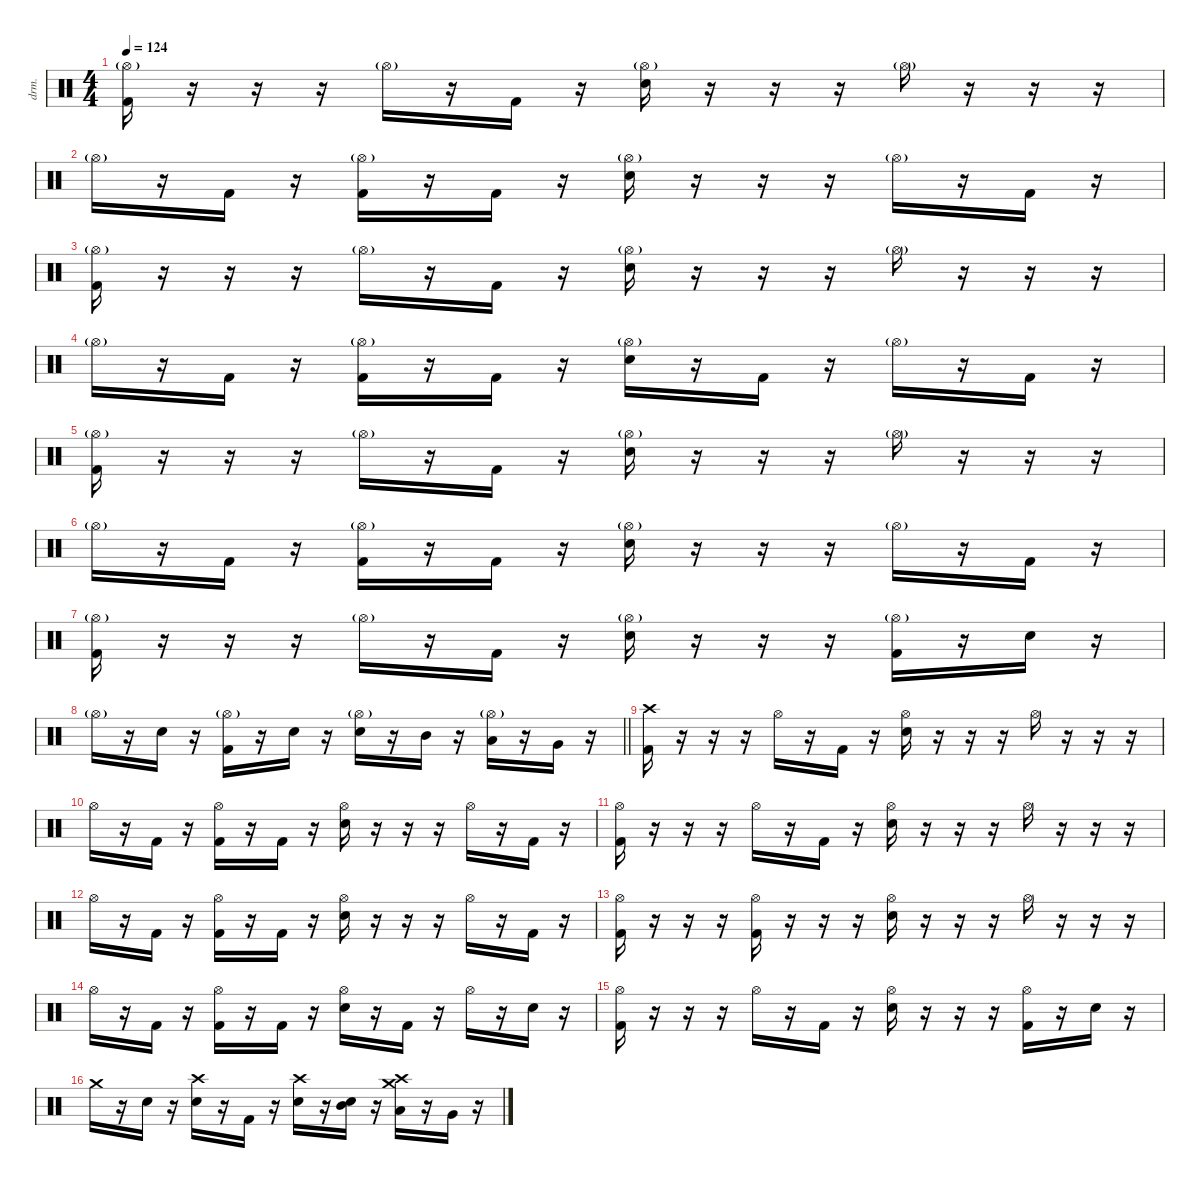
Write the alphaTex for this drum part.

\defaultSystemsLayout 4
\hideDynamics
\bracketExtendMode nobrackets
\otherSystemsTrackNameOrientation horizontal
\track ("Percussion" "drm.") {instrument percussion}
\staff {score}
\articulation defaults
\ts (4 4)
\tempo 124
\clef neutral
\ks c
("Kick (hit) 2" "Hi-Hat (open)"{g}).16{dy f beam Down} r.16{beam Down} r.16{beam Down} r.16{beam Down} "Hi-Hat (open)"{g}.16{dy mf beam Down} r.16{beam Down} "Kick (hit) 2".16{dy f beam Down} r.16{beam Down} ("Snare (hit) 2" "Hi-Hat (open)"{g}).16{beam Down} r.16{beam Down} r.16{beam Down} r.16{beam Down} "Hi-Hat (open)"{g}.16{dy mf beam Down} r.16{beam Down} r.16{beam Down} r.16{beam Down} |
"Hi-Hat (open)"{g}.16{beam Down} r.16{beam Down} "Kick (hit) 2".16{dy f beam Down} r.16{beam Down} ("Kick (hit) 2" "Hi-Hat (open)"{g}).16{beam Down} r.16{beam Down} "Kick (hit) 2".16{beam Down} r.16{beam Down} ("Snare (hit) 2" "Hi-Hat (open)"{g}).16{beam Down} r.16{beam Down} r.16{beam Down} r.16{beam Down} "Hi-Hat (open)"{g}.16{dy mf beam Down} r.16{beam Down} "Kick (hit) 2".16{dy f beam Down} r.16{beam Down} |
("Kick (hit) 2" "Hi-Hat (open)"{g}).16{beam Down} r.16{beam Down} r.16{beam Down} r.16{beam Down} "Hi-Hat (open)"{g}.16{dy mf beam Down} r.16{beam Down} "Kick (hit) 2".16{dy f beam Down} r.16{beam Down} ("Snare (hit) 2" "Hi-Hat (open)"{g}).16{beam Down} r.16{beam Down} r.16{beam Down} r.16{beam Down} "Hi-Hat (open)"{g}.16{dy mf beam Down} r.16{beam Down} r.16{beam Down} r.16{beam Down} |
"Hi-Hat (open)"{g}.16{beam Down} r.16{beam Down} "Kick (hit) 2".16{dy f beam Down} r.16{beam Down} ("Kick (hit) 2" "Hi-Hat (open)"{g}).16{beam Down} r.16{beam Down} "Kick (hit) 2".16{beam Down} r.16{beam Down} ("Snare (hit) 2" "Hi-Hat (open)"{g}).16{beam Down} r.16{beam Down} "Kick (hit) 2".16{beam Down} r.16{beam Down} "Hi-Hat (open)"{g}.16{dy mf beam Down} r.16{beam Down} "Kick (hit) 2".16{dy f beam Down} r.16{beam Down} |
("Kick (hit) 2" "Hi-Hat (open)"{g}).16{beam Down} r.16{beam Down} r.16{beam Down} r.16{beam Down} "Hi-Hat (open)"{g}.16{dy mf beam Down} r.16{beam Down} "Kick (hit) 2".16{dy f beam Down} r.16{beam Down} ("Snare (hit) 2" "Hi-Hat (open)"{g}).16{beam Down} r.16{beam Down} r.16{beam Down} r.16{beam Down} "Hi-Hat (open)"{g}.16{dy mf beam Down} r.16{beam Down} r.16{beam Down} r.16{beam Down} |
"Hi-Hat (open)"{g}.16{beam Down} r.16{beam Down} "Kick (hit) 2".16{dy f beam Down} r.16{beam Down} ("Kick (hit) 2" "Hi-Hat (open)"{g}).16{beam Down} r.16{beam Down} "Kick (hit) 2".16{beam Down} r.16{beam Down} ("Snare (hit) 2" "Hi-Hat (open)"{g}).16{beam Down} r.16{beam Down} r.16{beam Down} r.16{beam Down} "Hi-Hat (open)"{g}.16{dy mf beam Down} r.16{beam Down} "Kick (hit) 2".16{dy f beam Down} r.16{beam Down} |
("Kick (hit) 2" "Hi-Hat (open)"{g}).16{beam Down} r.16{beam Down} r.16{beam Down} r.16{beam Down} "Hi-Hat (open)"{g}.16{dy mf beam Down} r.16{beam Down} "Kick (hit) 2".16{dy f beam Down} r.16{beam Down} ("Snare (hit) 2" "Hi-Hat (open)"{g}).16{beam Down} r.16{beam Down} r.16{beam Down} r.16{beam Down} ("Kick (hit) 2" "Hi-Hat (open)"{g}).16{beam Down} r.16{beam Down} "Snare (hit) 2".16{beam Down} r.16{beam Down} |
\barLineRight lightlight "Hi-Hat (open)"{g}.16{dy mf beam Down}
r.16{beam Down} "Snare (hit) 2".16{dy f beam Down} r.16{beam Down} ("Kick (hit) 2" "Hi-Hat (open)"{g}).16{beam Down} r.16{beam Down} "Snare (hit) 2".16{beam Down} r.16{beam Down} ("Snare (hit) 2" "Hi-Hat (open)"{g}).16{beam Down} r.16{beam Down} "Mid Tom (hit)".16{beam Down} r.16{beam Down} ("Low Tom (hit)" "Hi-Hat (open)"{g}).16{beam Down} r.16{beam Down} "Very Low Tom (hit)".16{beam Down} r.16{beam Down} |
\section ("" "")
("Kick (hit) 2" "Crash high (hit)").16{beam Down} r.16{beam Down} r.16{beam Down} r.16{beam Down} "Hi-Hat (open)".16{beam Down} r.16{beam Down} "Kick (hit) 2".16{beam Down} r.16{beam Down} ("Snare (hit) 2" "Hi-Hat (open)").16{beam Down} r.16{beam Down} r.16{beam Down} r.16{beam Down} "Hi-Hat (open)".16{beam Down} r.16{beam Down} r.16{beam Down} r.16{beam Down} |
"Hi-Hat (open)".16{beam Down} r.16{beam Down} "Kick (hit) 2".16{beam Down} r.16{beam Down} ("Kick (hit) 2" "Hi-Hat (open)").16{beam Down} r.16{beam Down} "Kick (hit) 2".16{beam Down} r.16{beam Down} ("Snare (hit) 2" "Hi-Hat (open)").16{beam Down} r.16{beam Down} r.16{beam Down} r.16{beam Down} "Hi-Hat (open)".16{beam Down} r.16{beam Down} "Kick (hit) 2".16{beam Down} r.16{beam Down} |
("Kick (hit) 2" "Hi-Hat (open)").16{beam Down} r.16{beam Down} r.16{beam Down} r.16{beam Down} "Hi-Hat (open)".16{beam Down} r.16{beam Down} "Kick (hit) 2".16{beam Down} r.16{beam Down} ("Snare (hit) 2" "Hi-Hat (open)").16{beam Down} r.16{beam Down} r.16{beam Down} r.16{beam Down} "Hi-Hat (open)".16{beam Down} r.16{beam Down} r.16{beam Down} r.16{beam Down} |
"Hi-Hat (open)".16{beam Down} r.16{beam Down} "Kick (hit) 2".16{beam Down} r.16{beam Down} ("Kick (hit) 2" "Hi-Hat (open)").16{beam Down} r.16{beam Down} "Kick (hit) 2".16{beam Down} r.16{beam Down} ("Snare (hit) 2" "Hi-Hat (open)").16{beam Down} r.16{beam Down} r.16{beam Down} r.16{beam Down} "Hi-Hat (open)".16{beam Down} r.16{beam Down} "Kick (hit) 2".16{beam Down} r.16{beam Down} |
("Kick (hit) 2" "Hi-Hat (open)").16{beam Down} r.16{beam Down} r.16{beam Down} r.16{beam Down} ("Kick (hit) 2" "Hi-Hat (open)").16{beam Down} r.16{beam Down} r.16{beam Down} r.16{beam Down} ("Snare (hit) 2" "Hi-Hat (open)").16{beam Down} r.16{beam Down} r.16{beam Down} r.16{beam Down} "Hi-Hat (open)".16{beam Down} r.16{beam Down} r.16{beam Down} r.16{beam Down} |
"Hi-Hat (open)".16{beam Down} r.16{beam Down} "Kick (hit) 2".16{beam Down} r.16{beam Down} ("Kick (hit) 2" "Hi-Hat (open)").16{beam Down} r.16{beam Down} "Kick (hit) 2".16{beam Down} r.16{beam Down} ("Snare (hit) 2" "Hi-Hat (open)").16{beam Down} r.16{beam Down} "Kick (hit) 2".16{beam Down} r.16{beam Down} "Hi-Hat (open)".16{beam Down} r.16{beam Down} "Snare (hit) 2".16{beam Down} r.16{beam Down} |
("Kick (hit) 2" "Hi-Hat (open)").16{beam Down} r.16{beam Down} r.16{beam Down} r.16{beam Down} "Hi-Hat (open)".16{beam Down} r.16{beam Down} "Kick (hit) 2".16{beam Down} r.16{beam Down} ("Snare (hit) 2" "Hi-Hat (open)").16{beam Down} r.16{beam Down} r.16{beam Down} r.16{beam Down} ("Kick (hit) 2" "Hi-Hat (open)").16{beam Down} r.16{beam Down} "Snare (hit) 2".16{beam Down} r.16{beam Down} |
"Crash medium (hit)".16{beam Down} r.16{beam Down} "Snare (hit) 2".16{beam Down} r.16{beam Down} ("Snare (hit) 2" "Crash high (hit)").16{beam Down} r.16{beam Down} "Kick (hit) 2".16{beam Down} r.16{beam Down} ("Snare (hit) 2" "Crash high (hit)").16{beam Down} r.16{beam Down} ("Snare (hit) 2" "Mid Tom (hit)").16{beam Down} r.16{beam Down} ("Low Tom (hit)" "Crash medium (hit)" "Crash high (hit)").16{beam Down} r.16{beam Down} "Very Low Tom (hit)".16{beam Down} r.16{beam Down}
